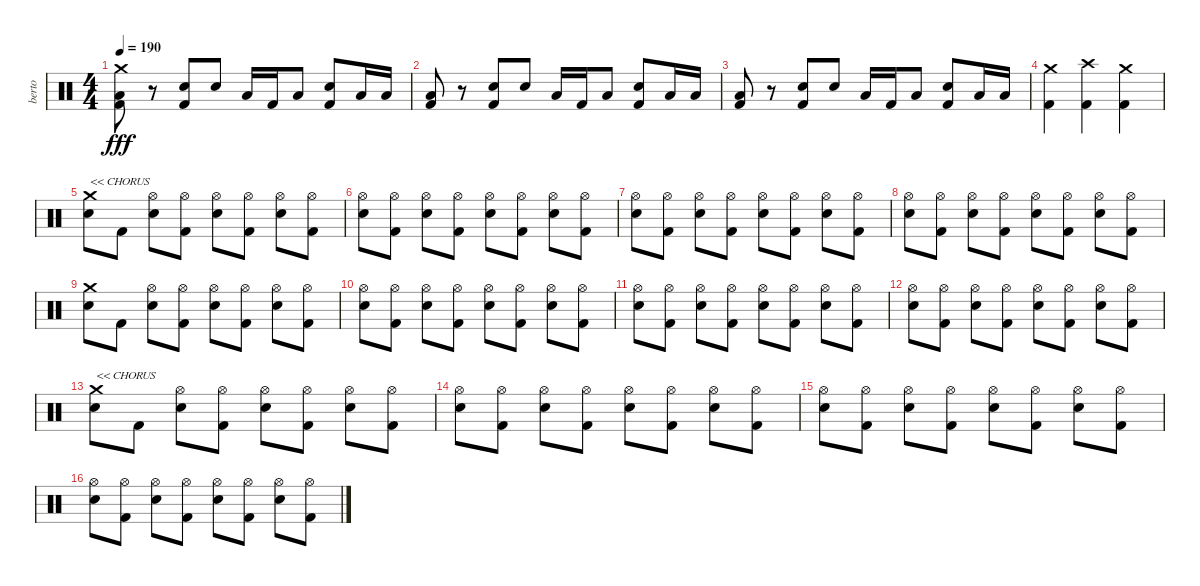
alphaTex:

\track ("berto" "berto") {instrument percussion}
\staff {score}
\articulation defaults
\ts (4 4)
\tempo 190
\clef neutral
\ks c
("Crash medium (hit)" "Low Tom (hit)" "Kick (hit) 2").8{dy fff} r.8 ("Snare (hit) 2" "Kick (hit) 2").8 "Snare (hit) 2".8 "Low Tom (hit)".16 "Kick (hit) 2".16 "Low Tom (hit)".8 ("Snare (hit) 2" "Kick (hit) 2").8 "Low Tom (hit)".16 "Low Tom (hit)".16 |
("Low Tom (hit)" "Kick (hit) 2").8 r.8 ("Snare (hit) 2" "Kick (hit) 2").8 "Snare (hit) 2".8 "Low Tom (hit)".16 "Kick (hit) 2".16 "Low Tom (hit)".8 ("Snare (hit) 2" "Kick (hit) 2").8 "Low Tom (hit)".16 "Low Tom (hit)".16 |
("Low Tom (hit)" "Kick (hit) 2").8 r.8 ("Snare (hit) 2" "Kick (hit) 2").8 "Snare (hit) 2".8 "Low Tom (hit)".16 "Kick (hit) 2".16 "Low Tom (hit)".8 ("Snare (hit) 2" "Kick (hit) 2").8 "Low Tom (hit)".16 "Low Tom (hit)".16 |
("Crash medium (hit)" "Kick (hit) 2").4 ("Crash high (hit)" "Kick (hit) 2").4 ("Crash medium (hit)" "Kick (hit) 2").4 |
("Crash medium (hit)" "Snare (hit) 2").8{txt "<< CHORUS"} "Kick (hit) 2".8 ("Hi-Hat (open)" "Snare (hit) 2").8 ("Hi-Hat (open)" "Kick (hit) 2").8 ("Hi-Hat (open)" "Snare (hit) 2").8 ("Hi-Hat (open)" "Kick (hit) 2").8 ("Hi-Hat (open)" "Snare (hit) 2").8 ("Hi-Hat (open)" "Kick (hit) 2").8 |
("Hi-Hat (open)" "Snare (hit) 2").8 ("Hi-Hat (open)" "Kick (hit) 2").8 ("Hi-Hat (open)" "Snare (hit) 2").8 ("Hi-Hat (open)" "Kick (hit) 2").8 ("Hi-Hat (open)" "Snare (hit) 2").8 ("Hi-Hat (open)" "Kick (hit) 2").8 ("Hi-Hat (open)" "Snare (hit) 2").8 ("Hi-Hat (open)" "Kick (hit) 2").8 |
("Hi-Hat (open)" "Snare (hit) 2").8 ("Hi-Hat (open)" "Kick (hit) 2").8 ("Hi-Hat (open)" "Snare (hit) 2").8 ("Hi-Hat (open)" "Kick (hit) 2").8 ("Hi-Hat (open)" "Snare (hit) 2").8 ("Hi-Hat (open)" "Kick (hit) 2").8 ("Hi-Hat (open)" "Snare (hit) 2").8 ("Hi-Hat (open)" "Kick (hit) 2").8 |
("Hi-Hat (open)" "Snare (hit) 2").8 ("Hi-Hat (open)" "Kick (hit) 2").8 ("Hi-Hat (open)" "Snare (hit) 2").8 ("Hi-Hat (open)" "Kick (hit) 2").8 ("Hi-Hat (open)" "Snare (hit) 2").8 ("Hi-Hat (open)" "Kick (hit) 2").8 ("Hi-Hat (open)" "Snare (hit) 2").8 ("Hi-Hat (open)" "Kick (hit) 2").8 |
("Crash medium (hit)" "Snare (hit) 2").8 "Kick (hit) 2".8 ("Hi-Hat (open)" "Snare (hit) 2").8 ("Hi-Hat (open)" "Kick (hit) 2").8 ("Hi-Hat (open)" "Snare (hit) 2").8 ("Hi-Hat (open)" "Kick (hit) 2").8 ("Hi-Hat (open)" "Snare (hit) 2").8 ("Hi-Hat (open)" "Kick (hit) 2").8 |
("Hi-Hat (open)" "Snare (hit) 2").8 ("Hi-Hat (open)" "Kick (hit) 2").8 ("Hi-Hat (open)" "Snare (hit) 2").8 ("Hi-Hat (open)" "Kick (hit) 2").8 ("Hi-Hat (open)" "Snare (hit) 2").8 ("Hi-Hat (open)" "Kick (hit) 2").8 ("Hi-Hat (open)" "Snare (hit) 2").8 ("Hi-Hat (open)" "Kick (hit) 2").8 |
("Hi-Hat (open)" "Snare (hit) 2").8 ("Hi-Hat (open)" "Kick (hit) 2").8 ("Hi-Hat (open)" "Snare (hit) 2").8 ("Hi-Hat (open)" "Kick (hit) 2").8 ("Hi-Hat (open)" "Snare (hit) 2").8 ("Hi-Hat (open)" "Kick (hit) 2").8 ("Hi-Hat (open)" "Snare (hit) 2").8 ("Hi-Hat (open)" "Kick (hit) 2").8 |
("Hi-Hat (open)" "Snare (hit) 2").8 ("Hi-Hat (open)" "Kick (hit) 2").8 ("Hi-Hat (open)" "Snare (hit) 2").8 ("Hi-Hat (open)" "Kick (hit) 2").8 ("Hi-Hat (open)" "Snare (hit) 2").8 ("Hi-Hat (open)" "Kick (hit) 2").8 ("Hi-Hat (open)" "Snare (hit) 2").8 ("Hi-Hat (open)" "Kick (hit) 2").8 |
("Crash medium (hit)" "Snare (hit) 2").8{txt "<< CHORUS"} "Kick (hit) 2".8 ("Hi-Hat (open)" "Snare (hit) 2").8 ("Hi-Hat (open)" "Kick (hit) 2").8 ("Hi-Hat (open)" "Snare (hit) 2").8 ("Hi-Hat (open)" "Kick (hit) 2").8 ("Hi-Hat (open)" "Snare (hit) 2").8 ("Hi-Hat (open)" "Kick (hit) 2").8 |
("Hi-Hat (open)" "Snare (hit) 2").8 ("Hi-Hat (open)" "Kick (hit) 2").8 ("Hi-Hat (open)" "Snare (hit) 2").8 ("Hi-Hat (open)" "Kick (hit) 2").8 ("Hi-Hat (open)" "Snare (hit) 2").8 ("Hi-Hat (open)" "Kick (hit) 2").8 ("Hi-Hat (open)" "Snare (hit) 2").8 ("Hi-Hat (open)" "Kick (hit) 2").8 |
("Hi-Hat (open)" "Snare (hit) 2").8 ("Hi-Hat (open)" "Kick (hit) 2").8 ("Hi-Hat (open)" "Snare (hit) 2").8 ("Hi-Hat (open)" "Kick (hit) 2").8 ("Hi-Hat (open)" "Snare (hit) 2").8 ("Hi-Hat (open)" "Kick (hit) 2").8 ("Hi-Hat (open)" "Snare (hit) 2").8 ("Hi-Hat (open)" "Kick (hit) 2").8 |
("Hi-Hat (open)" "Snare (hit) 2").8 ("Hi-Hat (open)" "Kick (hit) 2").8 ("Hi-Hat (open)" "Snare (hit) 2").8 ("Hi-Hat (open)" "Kick (hit) 2").8 ("Hi-Hat (open)" "Snare (hit) 2").8 ("Hi-Hat (open)" "Kick (hit) 2").8 ("Hi-Hat (open)" "Snare (hit) 2").8 ("Hi-Hat (open)" "Kick (hit) 2").8
